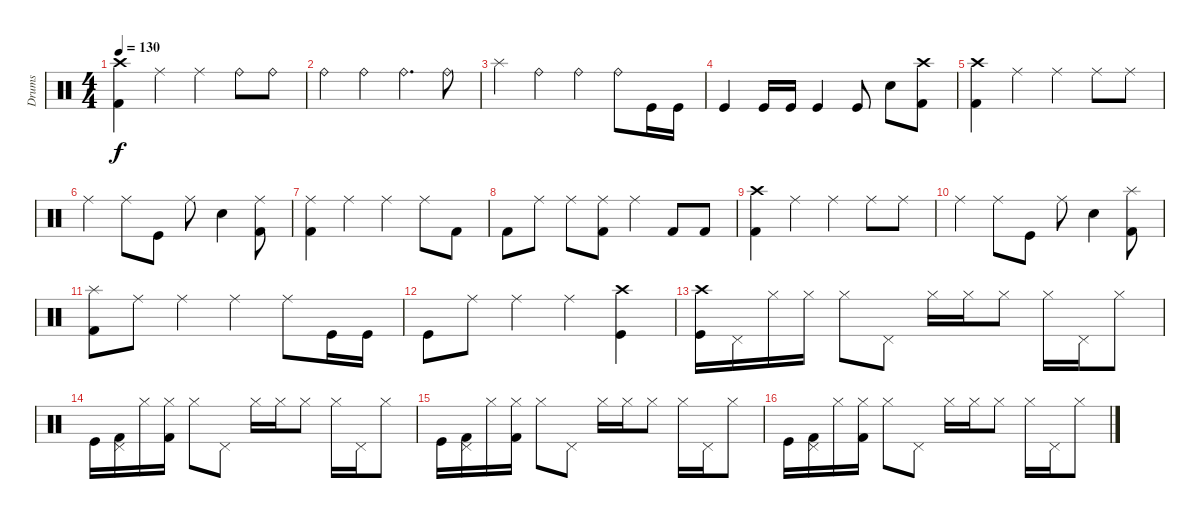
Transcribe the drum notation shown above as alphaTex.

\track ("Drums" "Drums") {instrument percussion}
\staff {score}
\articulation defaults
\ts (4 4)
\tempo 130
\clef neutral
\ks c
("Crash high (hit)" "Kick (hit) 2").4{dy f} "Ride (middle)".4 "Ride (middle)".4 "Ride (bell)".8 "Ride (bell)".8 |
"Ride (bell)".4 "Ride (bell)".4 "Ride (bell)".4{d} "Ride (bell)".8 |
"Splash (hit)".4 "Ride (bell)".4 "Ride (bell)".4 "Ride (bell)".8 "Kick (hit)".16 "Kick (hit)".16 |
"Kick (hit)".4 "Kick (hit)".16 "Kick (hit)".16 "Kick (hit)".4 "Kick (hit)".8 "Snare (hit) 2".8 ("Crash high (hit)" "Kick (hit) 2").8 |
("Crash high (hit)" "Kick (hit) 2").4 "Ride (middle)".4 "Ride (middle)".4 "Ride (middle)".8 "Ride (middle)".8 |
"Ride (middle)".4 "Ride (middle)".8 "Kick (hit)".8 "Ride (middle)".8 "Snare (hit) 2".4 ("Kick (hit) 2" "Ride (middle)").8 |
("Kick (hit) 2" "Ride (middle)").4 "Ride (middle)".4 "Ride (middle)".4 "Ride (middle)".8 "Kick (hit) 2".8 |
"Kick (hit) 2".8 "Ride (middle)".8 "Ride (middle)".8 ("Kick (hit) 2" "Ride (middle)").8 "Ride (middle)".4 "Kick (hit) 2".8 "Kick (hit) 2".8 |
("Crash high (hit)" "Kick (hit) 2").4 "Ride (middle)".4 "Ride (middle)".4 "Ride (middle)".8 "Ride (middle)".8 |
"Ride (middle)".4 "Ride (middle)".8 "Kick (hit)".8 "Ride (middle)".8 "Snare (hit) 2".4 ("Kick (hit) 2" "Splash (hit)").8 |
("Kick (hit) 2" "Splash (hit)").8 "Ride (middle)".8 "Ride (middle)".4 "Ride (middle)".4 "Ride (middle)".8 "Kick (hit)".16 "Kick (hit)".16 |
"Kick (hit)".8 "Ride (middle)".8 "Ride (middle)".4 "Ride (middle)".4 ("Crash high (hit)" "Kick (hit)").4 |
("Crash high (hit)" "Kick (hit)").16 "Pedal Hi-Hat (hit)".16 "Hi-Hat (closed)".16 "Hi-Hat (closed)".16 "Hi-Hat (closed)".8 "Pedal Hi-Hat (hit)".8 "Hi-Hat (closed)".16 "Hi-Hat (closed)".16 "Hi-Hat (closed)".8 "Hi-Hat (closed)".16 "Pedal Hi-Hat (hit)".16 "Hi-Hat (closed)".8 |
"Kick (hit)".16 ("Pedal Hi-Hat (hit)" "Kick (hit) 2").16 "Hi-Hat (closed)".16 ("Hi-Hat (closed)" "Kick (hit) 2").16 "Hi-Hat (closed)".8 "Pedal Hi-Hat (hit)".8 "Hi-Hat (closed)".16 "Hi-Hat (closed)".16 "Hi-Hat (closed)".8 "Hi-Hat (closed)".16 "Pedal Hi-Hat (hit)".16 "Hi-Hat (closed)".8 |
"Kick (hit)".16 ("Pedal Hi-Hat (hit)" "Kick (hit) 2").16 "Hi-Hat (closed)".16 ("Hi-Hat (closed)" "Kick (hit) 2").16 "Hi-Hat (closed)".8 "Pedal Hi-Hat (hit)".8 "Hi-Hat (closed)".16 "Hi-Hat (closed)".16 "Hi-Hat (closed)".8 "Hi-Hat (closed)".16 "Pedal Hi-Hat (hit)".16 "Hi-Hat (closed)".8 |
"Kick (hit)".16 ("Pedal Hi-Hat (hit)" "Kick (hit) 2").16 "Hi-Hat (closed)".16 ("Hi-Hat (closed)" "Kick (hit) 2").16 "Hi-Hat (closed)".8 "Pedal Hi-Hat (hit)".8 "Hi-Hat (closed)".16 "Hi-Hat (closed)".16 "Hi-Hat (closed)".8 "Hi-Hat (closed)".16 "Pedal Hi-Hat (hit)".16 "Hi-Hat (closed)".8
